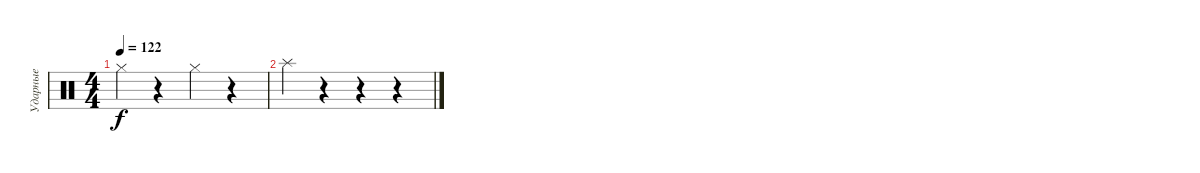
\track ("Ударные" "Ударные") {instrument percussion}
\staff {score}
\articulation defaults
\ts (4 4)
\tempo 122
\clef neutral
\ks c "Hi-Hat (closed)".4{dy f}
r.4 "Hi-Hat (closed)".4 r.4 |
"Splash (hit)".4 r.4 r.4 r.4
